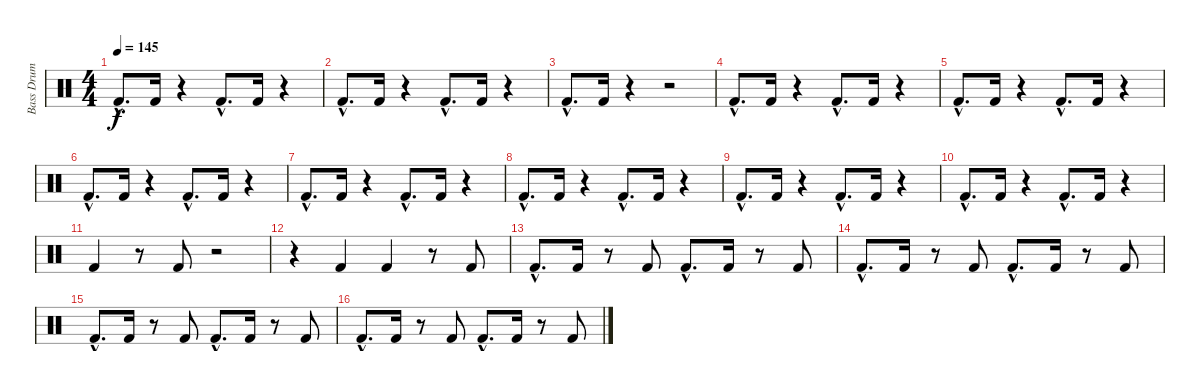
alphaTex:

\track ("Bass Drum" "Bass Drum") {instrument percussion}
\staff {score}
\articulation defaults
\ts (4 4)
\tempo 145
\clef neutral
\ks c "Kick (hit) 2"{hac}.8{d dy f} "Kick (hit) 2".16
r.4 "Kick (hit) 2"{hac}.8{d} "Kick (hit) 2".16 r.4 |
"Kick (hit) 2"{hac}.8{d} "Kick (hit) 2".16 r.4 "Kick (hit) 2"{hac}.8{d} "Kick (hit) 2".16 r.4 |
"Kick (hit) 2"{hac}.8{d} "Kick (hit) 2".16 r.4 r.2 |
"Kick (hit) 2"{hac}.8{d} "Kick (hit) 2".16 r.4 "Kick (hit) 2"{hac}.8{d} "Kick (hit) 2".16 r.4 |
"Kick (hit) 2"{hac}.8{d} "Kick (hit) 2".16 r.4 "Kick (hit) 2"{hac}.8{d} "Kick (hit) 2".16 r.4 |
"Kick (hit) 2"{hac}.8{d} "Kick (hit) 2".16 r.4 "Kick (hit) 2"{hac}.8{d} "Kick (hit) 2".16 r.4 |
"Kick (hit) 2"{hac}.8{d} "Kick (hit) 2".16 r.4 "Kick (hit) 2"{hac}.8{d} "Kick (hit) 2".16 r.4 |
"Kick (hit) 2"{hac}.8{d} "Kick (hit) 2".16 r.4 "Kick (hit) 2"{hac}.8{d} "Kick (hit) 2".16 r.4 |
"Kick (hit) 2"{hac}.8{d} "Kick (hit) 2".16 r.4 "Kick (hit) 2"{hac}.8{d} "Kick (hit) 2".16 r.4 |
"Kick (hit) 2"{hac}.8{d} "Kick (hit) 2".16 r.4 "Kick (hit) 2"{hac}.8{d} "Kick (hit) 2".16 r.4 |
"Kick (hit) 2".4 r.8 "Kick (hit) 2".8 r.2 |
r.4 "Kick (hit) 2".4 "Kick (hit) 2".4 r.8 "Kick (hit) 2".8 |
"Kick (hit) 2"{hac}.8{d} "Kick (hit) 2".16 r.8 "Kick (hit) 2".8 "Kick (hit) 2"{hac}.8{d} "Kick (hit) 2".16 r.8 "Kick (hit) 2".8 |
"Kick (hit) 2"{hac}.8{d} "Kick (hit) 2".16 r.8 "Kick (hit) 2".8 "Kick (hit) 2"{hac}.8{d} "Kick (hit) 2".16 r.8 "Kick (hit) 2".8 |
"Kick (hit) 2"{hac}.8{d} "Kick (hit) 2".16 r.8 "Kick (hit) 2".8 "Kick (hit) 2"{hac}.8{d} "Kick (hit) 2".16 r.8 "Kick (hit) 2".8 |
"Kick (hit) 2"{hac}.8{d} "Kick (hit) 2".16 r.8 "Kick (hit) 2".8 "Kick (hit) 2"{hac}.8{d} "Kick (hit) 2".16 r.8 "Kick (hit) 2".8
